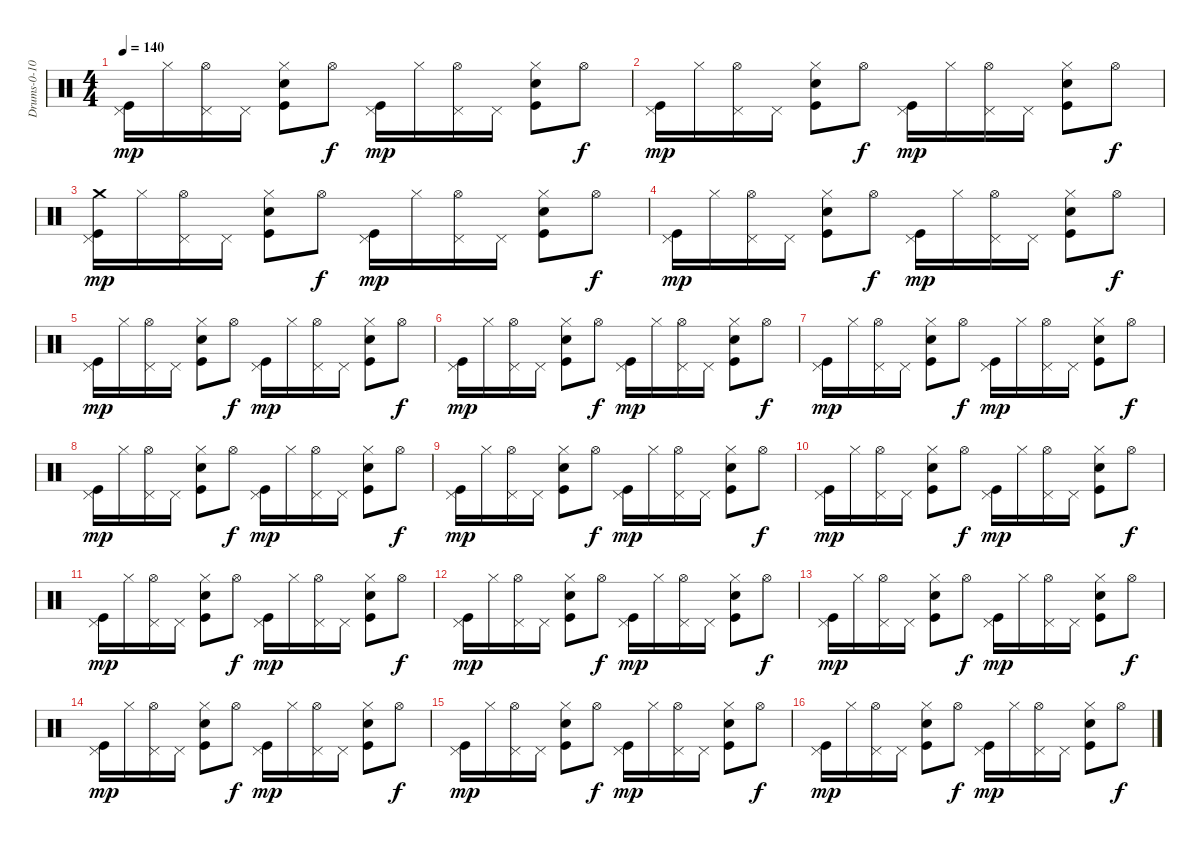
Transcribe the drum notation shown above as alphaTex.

\track ("Drums-0-10" "Drums-0-10") {instrument percussion}
\staff {score}
\articulation defaults
\ts (4 4)
\tempo 140
\clef neutral
\ks c
("Kick (hit)" "Pedal Hi-Hat (hit)").16{dy mp} "Hi-Hat (closed)".16 ("Pedal Hi-Hat (hit)" "Hi-Hat (open)").16 "Pedal Hi-Hat (hit)".16 ("Kick (hit)" "Hand Clap (hit)" "Hi-Hat (closed)").8 "Hi-Hat (open)".8{dy f} ("Kick (hit)" "Pedal Hi-Hat (hit)").16{dy mp} "Hi-Hat (closed)".16 ("Pedal Hi-Hat (hit)" "Hi-Hat (open)").16 "Pedal Hi-Hat (hit)".16 ("Kick (hit)" "Hand Clap (hit)" "Hi-Hat (closed)").8 "Hi-Hat (open)".8{dy f} |
("Kick (hit)" "Pedal Hi-Hat (hit)").16{dy mp} "Hi-Hat (closed)".16 ("Pedal Hi-Hat (hit)" "Hi-Hat (open)").16 "Pedal Hi-Hat (hit)".16 ("Kick (hit)" "Hand Clap (hit)" "Hi-Hat (closed)").8 "Hi-Hat (open)".8{dy f} ("Kick (hit)" "Pedal Hi-Hat (hit)").16{dy mp} "Hi-Hat (closed)".16 ("Pedal Hi-Hat (hit)" "Hi-Hat (open)").16 "Pedal Hi-Hat (hit)".16 ("Kick (hit)" "Hand Clap (hit)" "Hi-Hat (closed)").8 "Hi-Hat (open)".8{dy f} |
("Crash medium (hit)" "Kick (hit)" "Pedal Hi-Hat (hit)").16{dy mp} "Hi-Hat (closed)".16 ("Pedal Hi-Hat (hit)" "Hi-Hat (open)").16 "Pedal Hi-Hat (hit)".16 ("Kick (hit)" "Hand Clap (hit)" "Hi-Hat (closed)").8 "Hi-Hat (open)".8{dy f} ("Kick (hit)" "Pedal Hi-Hat (hit)").16{dy mp} "Hi-Hat (closed)".16 ("Pedal Hi-Hat (hit)" "Hi-Hat (open)").16 "Pedal Hi-Hat (hit)".16 ("Kick (hit)" "Hand Clap (hit)" "Hi-Hat (closed)").8 "Hi-Hat (open)".8{dy f} |
("Kick (hit)" "Pedal Hi-Hat (hit)").16{dy mp} "Hi-Hat (closed)".16 ("Pedal Hi-Hat (hit)" "Hi-Hat (open)").16 "Pedal Hi-Hat (hit)".16 ("Kick (hit)" "Hand Clap (hit)" "Hi-Hat (closed)").8 "Hi-Hat (open)".8{dy f} ("Kick (hit)" "Pedal Hi-Hat (hit)").16{dy mp} "Hi-Hat (closed)".16 ("Pedal Hi-Hat (hit)" "Hi-Hat (open)").16 "Pedal Hi-Hat (hit)".16 ("Kick (hit)" "Hand Clap (hit)" "Hi-Hat (closed)").8 "Hi-Hat (open)".8{dy f} |
("Kick (hit)" "Pedal Hi-Hat (hit)").16{dy mp} "Hi-Hat (closed)".16 ("Pedal Hi-Hat (hit)" "Hi-Hat (open)").16 "Pedal Hi-Hat (hit)".16 ("Kick (hit)" "Hand Clap (hit)" "Hi-Hat (closed)").8 "Hi-Hat (open)".8{dy f} ("Kick (hit)" "Pedal Hi-Hat (hit)").16{dy mp} "Hi-Hat (closed)".16 ("Pedal Hi-Hat (hit)" "Hi-Hat (open)").16 "Pedal Hi-Hat (hit)".16 ("Kick (hit)" "Hand Clap (hit)" "Hi-Hat (closed)").8 "Hi-Hat (open)".8{dy f} |
("Kick (hit)" "Pedal Hi-Hat (hit)").16{dy mp} "Hi-Hat (closed)".16 ("Pedal Hi-Hat (hit)" "Hi-Hat (open)").16 "Pedal Hi-Hat (hit)".16 ("Kick (hit)" "Hand Clap (hit)" "Hi-Hat (closed)").8 "Hi-Hat (open)".8{dy f} ("Kick (hit)" "Pedal Hi-Hat (hit)").16{dy mp} "Hi-Hat (closed)".16 ("Pedal Hi-Hat (hit)" "Hi-Hat (open)").16 "Pedal Hi-Hat (hit)".16 ("Kick (hit)" "Hand Clap (hit)" "Hi-Hat (closed)").8 "Hi-Hat (open)".8{dy f} |
("Kick (hit)" "Pedal Hi-Hat (hit)").16{dy mp} "Hi-Hat (closed)".16 ("Pedal Hi-Hat (hit)" "Hi-Hat (open)").16 "Pedal Hi-Hat (hit)".16 ("Kick (hit)" "Hand Clap (hit)" "Hi-Hat (closed)").8 "Hi-Hat (open)".8{dy f} ("Kick (hit)" "Pedal Hi-Hat (hit)").16{dy mp} "Hi-Hat (closed)".16 ("Pedal Hi-Hat (hit)" "Hi-Hat (open)").16 "Pedal Hi-Hat (hit)".16 ("Kick (hit)" "Hand Clap (hit)" "Hi-Hat (closed)").8 "Hi-Hat (open)".8{dy f} |
("Kick (hit)" "Pedal Hi-Hat (hit)").16{dy mp} "Hi-Hat (closed)".16 ("Pedal Hi-Hat (hit)" "Hi-Hat (open)").16 "Pedal Hi-Hat (hit)".16 ("Kick (hit)" "Hand Clap (hit)" "Hi-Hat (closed)").8 "Hi-Hat (open)".8{dy f} ("Kick (hit)" "Pedal Hi-Hat (hit)").16{dy mp} "Hi-Hat (closed)".16 ("Pedal Hi-Hat (hit)" "Hi-Hat (open)").16 "Pedal Hi-Hat (hit)".16 ("Kick (hit)" "Hand Clap (hit)" "Hi-Hat (closed)").8 "Hi-Hat (open)".8{dy f} |
("Kick (hit)" "Pedal Hi-Hat (hit)").16{dy mp} "Hi-Hat (closed)".16 ("Pedal Hi-Hat (hit)" "Hi-Hat (open)").16 "Pedal Hi-Hat (hit)".16 ("Kick (hit)" "Hand Clap (hit)" "Hi-Hat (closed)").8 "Hi-Hat (open)".8{dy f} ("Kick (hit)" "Pedal Hi-Hat (hit)").16{dy mp} "Hi-Hat (closed)".16 ("Pedal Hi-Hat (hit)" "Hi-Hat (open)").16 "Pedal Hi-Hat (hit)".16 ("Kick (hit)" "Hand Clap (hit)" "Hi-Hat (closed)").8 "Hi-Hat (open)".8{dy f} |
("Kick (hit)" "Pedal Hi-Hat (hit)").16{dy mp} "Hi-Hat (closed)".16 ("Pedal Hi-Hat (hit)" "Hi-Hat (open)").16 "Pedal Hi-Hat (hit)".16 ("Kick (hit)" "Hand Clap (hit)" "Hi-Hat (closed)").8 "Hi-Hat (open)".8{dy f} ("Kick (hit)" "Pedal Hi-Hat (hit)").16{dy mp} "Hi-Hat (closed)".16 ("Pedal Hi-Hat (hit)" "Hi-Hat (open)").16 "Pedal Hi-Hat (hit)".16 ("Kick (hit)" "Hand Clap (hit)" "Hi-Hat (closed)").8 "Hi-Hat (open)".8{dy f} |
("Kick (hit)" "Pedal Hi-Hat (hit)").16{dy mp} "Hi-Hat (closed)".16 ("Pedal Hi-Hat (hit)" "Hi-Hat (open)").16 "Pedal Hi-Hat (hit)".16 ("Kick (hit)" "Hand Clap (hit)" "Hi-Hat (closed)").8 "Hi-Hat (open)".8{dy f} ("Kick (hit)" "Pedal Hi-Hat (hit)").16{dy mp} "Hi-Hat (closed)".16 ("Pedal Hi-Hat (hit)" "Hi-Hat (open)").16 "Pedal Hi-Hat (hit)".16 ("Kick (hit)" "Hand Clap (hit)" "Hi-Hat (closed)").8 "Hi-Hat (open)".8{dy f} |
("Kick (hit)" "Pedal Hi-Hat (hit)").16{dy mp} "Hi-Hat (closed)".16 ("Pedal Hi-Hat (hit)" "Hi-Hat (open)").16 "Pedal Hi-Hat (hit)".16 ("Kick (hit)" "Hand Clap (hit)" "Hi-Hat (closed)").8 "Hi-Hat (open)".8{dy f} ("Kick (hit)" "Pedal Hi-Hat (hit)").16{dy mp} "Hi-Hat (closed)".16 ("Pedal Hi-Hat (hit)" "Hi-Hat (open)").16 "Pedal Hi-Hat (hit)".16 ("Kick (hit)" "Hand Clap (hit)" "Hi-Hat (closed)").8 "Hi-Hat (open)".8{dy f} |
("Kick (hit)" "Pedal Hi-Hat (hit)").16{dy mp} "Hi-Hat (closed)".16 ("Pedal Hi-Hat (hit)" "Hi-Hat (open)").16 "Pedal Hi-Hat (hit)".16 ("Kick (hit)" "Hand Clap (hit)" "Hi-Hat (closed)").8 "Hi-Hat (open)".8{dy f} ("Kick (hit)" "Pedal Hi-Hat (hit)").16{dy mp} "Hi-Hat (closed)".16 ("Pedal Hi-Hat (hit)" "Hi-Hat (open)").16 "Pedal Hi-Hat (hit)".16 ("Kick (hit)" "Hand Clap (hit)" "Hi-Hat (closed)").8 "Hi-Hat (open)".8{dy f} |
("Kick (hit)" "Pedal Hi-Hat (hit)").16{dy mp} "Hi-Hat (closed)".16 ("Pedal Hi-Hat (hit)" "Hi-Hat (open)").16 "Pedal Hi-Hat (hit)".16 ("Kick (hit)" "Hand Clap (hit)" "Hi-Hat (closed)").8 "Hi-Hat (open)".8{dy f} ("Kick (hit)" "Pedal Hi-Hat (hit)").16{dy mp} "Hi-Hat (closed)".16 ("Pedal Hi-Hat (hit)" "Hi-Hat (open)").16 "Pedal Hi-Hat (hit)".16 ("Kick (hit)" "Hand Clap (hit)" "Hi-Hat (closed)").8 "Hi-Hat (open)".8{dy f} |
("Kick (hit)" "Pedal Hi-Hat (hit)").16{dy mp} "Hi-Hat (closed)".16 ("Pedal Hi-Hat (hit)" "Hi-Hat (open)").16 "Pedal Hi-Hat (hit)".16 ("Kick (hit)" "Hand Clap (hit)" "Hi-Hat (closed)").8 "Hi-Hat (open)".8{dy f} ("Kick (hit)" "Pedal Hi-Hat (hit)").16{dy mp} "Hi-Hat (closed)".16 ("Pedal Hi-Hat (hit)" "Hi-Hat (open)").16 "Pedal Hi-Hat (hit)".16 ("Kick (hit)" "Hand Clap (hit)" "Hi-Hat (closed)").8 "Hi-Hat (open)".8{dy f} |
("Kick (hit)" "Pedal Hi-Hat (hit)").16{dy mp} "Hi-Hat (closed)".16 ("Pedal Hi-Hat (hit)" "Hi-Hat (open)").16 "Pedal Hi-Hat (hit)".16 ("Kick (hit)" "Hand Clap (hit)" "Hi-Hat (closed)").8 "Hi-Hat (open)".8{dy f} ("Kick (hit)" "Pedal Hi-Hat (hit)").16{dy mp} "Hi-Hat (closed)".16 ("Pedal Hi-Hat (hit)" "Hi-Hat (open)").16 "Pedal Hi-Hat (hit)".16 ("Kick (hit)" "Hand Clap (hit)" "Hi-Hat (closed)").8 "Hi-Hat (open)".8{dy f}
